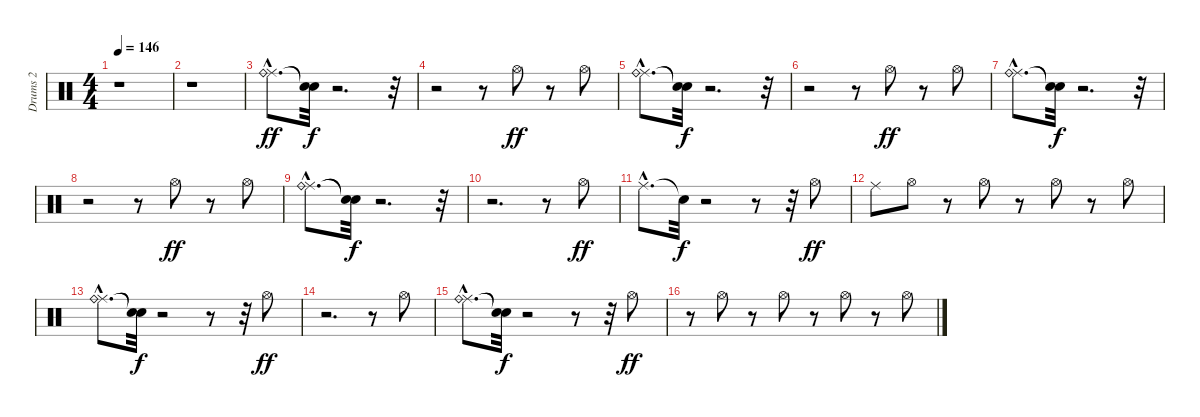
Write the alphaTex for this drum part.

\track ("Drums 2" "Drums 2") {instrument percussion}
\staff {score}
\articulation defaults
\ts (4 4)
\tempo 146
\clef neutral
\ks c
r.1{dy ff} |
r.1 |
("Ride (middle)"{hac} "Ride (bell)"{hac}).8{d} ("Snare (hit)"{t} "Snare (hit)"{t}).32{dy f} r.2{d} r.32 |
r.2 r.8 "Hi-Hat (open)".8{dy ff} r.8 "Hi-Hat (open)".8 |
("Ride (middle)"{hac} "Ride (bell)"{hac}).8{d} ("Snare (hit)"{t} "Snare (hit)"{t}).32{dy f} r.2{d} r.32 |
r.2 r.8 "Hi-Hat (open)".8{dy ff} r.8 "Hi-Hat (open)".8 |
("Ride (middle)"{hac} "Ride (bell)"{hac}).8{d} ("Snare (hit)"{t} "Snare (hit)"{t}).32{dy f} r.2{d} r.32 |
r.2 r.8 "Hi-Hat (open)".8{dy ff} r.8 "Hi-Hat (open)".8 |
("Ride (middle)"{hac} "Ride (bell)"{hac}).8{d} ("Snare (hit)"{t} "Snare (hit)"{t}).32{dy f} r.2{d} r.32 |
r.2{d} r.8 "Hi-Hat (open)".8{dy ff} |
"Ride (middle)"{hac}.8{d} "Snare (hit)"{t}.32{dy f} r.2 r.8 r.32 "Hi-Hat (open)".8{dy ff} |
"Ride (middle)".8 "Hi-Hat (open)".8 r.8 "Hi-Hat (open)".8 r.8 "Hi-Hat (open)".8 r.8 "Hi-Hat (open)".8 |
("Ride (middle)"{hac} "Ride (bell)"{hac}).8{d} ("Snare (hit)"{t} "Snare (hit)"{t}).32{dy f} r.2 r.8 r.32 "Hi-Hat (open)".8{dy ff} |
r.2{d} r.8 "Hi-Hat (open)".8 |
("Ride (middle)"{hac} "Ride (bell)"{hac}).8{d} ("Snare (hit)"{t} "Snare (hit)"{t}).32{dy f} r.2 r.8 r.32 "Hi-Hat (open)".8{dy ff} |
r.8 "Hi-Hat (open)".8 r.8 "Hi-Hat (open)".8 r.8 "Hi-Hat (open)".8 r.8 "Hi-Hat (open)".8
